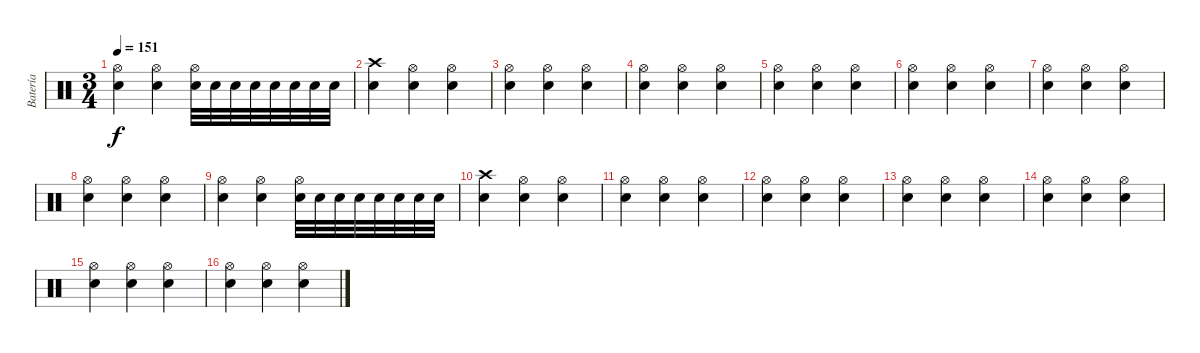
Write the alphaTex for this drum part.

\track ("Batería" "Batería") {instrument percussion}
\staff {score}
\articulation defaults
\ts (3 4)
\tempo 151
\clef neutral
\ks c
("Hi-Hat (open)" "Snare (hit) 2").4{dy f} ("Hi-Hat (open)" "Snare (hit) 2").4 ("Hi-Hat (open)" "Snare (hit) 2").32 "Snare (hit) 2".32 "Snare (hit) 2".32 "Snare (hit) 2".32 "Snare (hit) 2".32 "Snare (hit) 2".32 "Snare (hit) 2".32 "Snare (hit) 2".32 |
("Crash high (hit)" "Snare (hit) 2").4 ("Hi-Hat (open)" "Snare (hit) 2").4 ("Hi-Hat (open)" "Snare (hit) 2").4 |
("Hi-Hat (open)" "Snare (hit) 2").4 ("Hi-Hat (open)" "Snare (hit) 2").4 ("Hi-Hat (open)" "Snare (hit) 2").4 |
("Hi-Hat (open)" "Snare (hit) 2").4 ("Hi-Hat (open)" "Snare (hit) 2").4 ("Hi-Hat (open)" "Snare (hit) 2").4 |
("Hi-Hat (open)" "Snare (hit) 2").4 ("Hi-Hat (open)" "Snare (hit) 2").4 ("Hi-Hat (open)" "Snare (hit) 2").4 |
("Hi-Hat (open)" "Snare (hit) 2").4 ("Hi-Hat (open)" "Snare (hit) 2").4 ("Hi-Hat (open)" "Snare (hit) 2").4 |
("Hi-Hat (open)" "Snare (hit) 2").4 ("Hi-Hat (open)" "Snare (hit) 2").4 ("Hi-Hat (open)" "Snare (hit) 2").4 |
("Hi-Hat (open)" "Snare (hit) 2").4 ("Hi-Hat (open)" "Snare (hit) 2").4 ("Hi-Hat (open)" "Snare (hit) 2").4 |
("Hi-Hat (open)" "Snare (hit) 2").4 ("Hi-Hat (open)" "Snare (hit) 2").4 ("Hi-Hat (open)" "Snare (hit) 2").32 "Snare (hit) 2".32 "Snare (hit) 2".32 "Snare (hit) 2".32 "Snare (hit) 2".32 "Snare (hit) 2".32 "Snare (hit) 2".32 "Snare (hit) 2".32 |
("Crash high (hit)" "Snare (hit) 2").4 ("Hi-Hat (open)" "Snare (hit) 2").4 ("Hi-Hat (open)" "Snare (hit) 2").4 |
("Hi-Hat (open)" "Snare (hit) 2").4 ("Hi-Hat (open)" "Snare (hit) 2").4 ("Hi-Hat (open)" "Snare (hit) 2").4 |
("Hi-Hat (open)" "Snare (hit) 2").4 ("Hi-Hat (open)" "Snare (hit) 2").4 ("Hi-Hat (open)" "Snare (hit) 2").4 |
("Hi-Hat (open)" "Snare (hit) 2").4 ("Hi-Hat (open)" "Snare (hit) 2").4 ("Hi-Hat (open)" "Snare (hit) 2").4 |
("Hi-Hat (open)" "Snare (hit) 2").4 ("Hi-Hat (open)" "Snare (hit) 2").4 ("Hi-Hat (open)" "Snare (hit) 2").4 |
("Hi-Hat (open)" "Snare (hit) 2").4 ("Hi-Hat (open)" "Snare (hit) 2").4 ("Hi-Hat (open)" "Snare (hit) 2").4 |
("Hi-Hat (open)" "Snare (hit) 2").4 ("Hi-Hat (open)" "Snare (hit) 2").4 ("Hi-Hat (open)" "Snare (hit) 2").4
